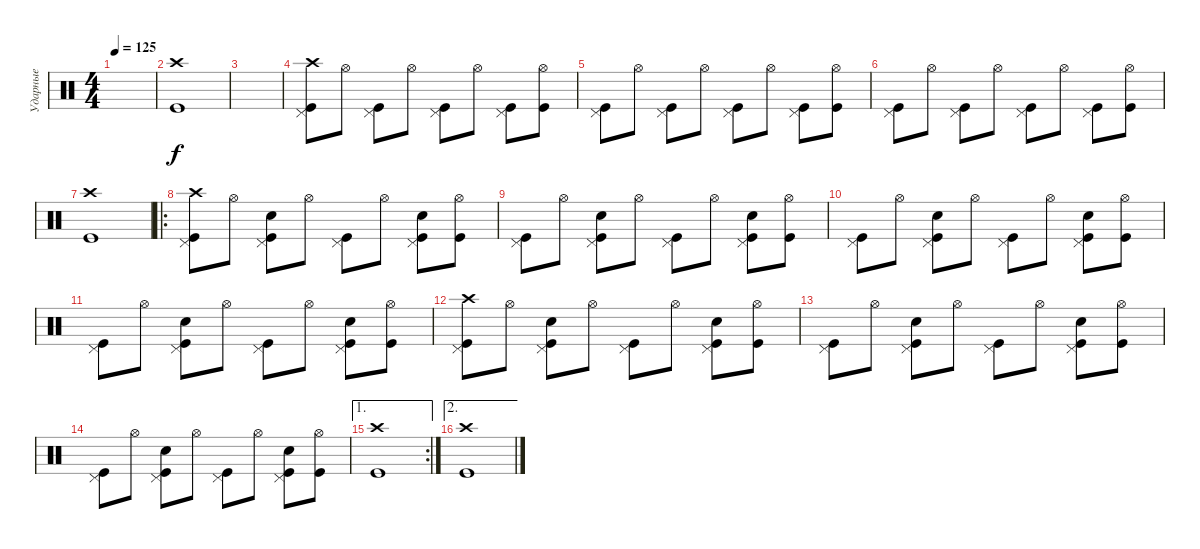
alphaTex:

\track ("Ударные" "Ударные") {instrument percussion}
\staff {score}
\articulation defaults
\ts (4 4)
\tempo 125
\clef neutral
\ks c
|
("Kick (hit)" "Crash high (hit)").1 |
|
("Kick (hit)" "Pedal Hi-Hat (hit)" "Crash high (hit)").8 "Hi-Hat (open)".8 ("Kick (hit)" "Pedal Hi-Hat (hit)").8 "Hi-Hat (open)".8 ("Kick (hit)" "Pedal Hi-Hat (hit)").8 "Hi-Hat (open)".8 ("Kick (hit)" "Pedal Hi-Hat (hit)").8 ("Kick (hit)" "Hi-Hat (open)").8 |
("Kick (hit)" "Pedal Hi-Hat (hit)").8 "Hi-Hat (open)".8 ("Kick (hit)" "Pedal Hi-Hat (hit)").8 "Hi-Hat (open)".8 ("Kick (hit)" "Pedal Hi-Hat (hit)").8 "Hi-Hat (open)".8 ("Kick (hit)" "Pedal Hi-Hat (hit)").8 ("Kick (hit)" "Hi-Hat (open)").8 |
("Kick (hit)" "Pedal Hi-Hat (hit)").8 "Hi-Hat (open)".8 ("Kick (hit)" "Pedal Hi-Hat (hit)").8 "Hi-Hat (open)".8 ("Kick (hit)" "Pedal Hi-Hat (hit)").8 "Hi-Hat (open)".8 ("Kick (hit)" "Pedal Hi-Hat (hit)").8 ("Kick (hit)" "Hi-Hat (open)").8 |
("Kick (hit)" "Crash high (hit)").1 |
\ro
("Kick (hit)" "Pedal Hi-Hat (hit)" "Crash high (hit)").8 "Hi-Hat (open)".8 ("Kick (hit)" "Pedal Hi-Hat (hit)" "Hand Clap (hit)").8 "Hi-Hat (open)".8 ("Kick (hit)" "Pedal Hi-Hat (hit)").8 "Hi-Hat (open)".8 ("Kick (hit)" "Pedal Hi-Hat (hit)" "Hand Clap (hit)").8 ("Kick (hit)" "Hi-Hat (open)").8 |
("Kick (hit)" "Pedal Hi-Hat (hit)").8 "Hi-Hat (open)".8 ("Kick (hit)" "Pedal Hi-Hat (hit)" "Hand Clap (hit)").8 "Hi-Hat (open)".8 ("Kick (hit)" "Pedal Hi-Hat (hit)").8 "Hi-Hat (open)".8 ("Kick (hit)" "Pedal Hi-Hat (hit)" "Hand Clap (hit)").8 ("Kick (hit)" "Hi-Hat (open)").8 |
("Kick (hit)" "Pedal Hi-Hat (hit)").8 "Hi-Hat (open)".8 ("Kick (hit)" "Pedal Hi-Hat (hit)" "Hand Clap (hit)").8 "Hi-Hat (open)".8 ("Kick (hit)" "Pedal Hi-Hat (hit)").8 "Hi-Hat (open)".8 ("Kick (hit)" "Pedal Hi-Hat (hit)" "Hand Clap (hit)").8 ("Kick (hit)" "Hi-Hat (open)").8 |
("Kick (hit)" "Pedal Hi-Hat (hit)").8 "Hi-Hat (open)".8 ("Kick (hit)" "Pedal Hi-Hat (hit)" "Hand Clap (hit)").8 "Hi-Hat (open)".8 ("Kick (hit)" "Pedal Hi-Hat (hit)").8 "Hi-Hat (open)".8 ("Kick (hit)" "Pedal Hi-Hat (hit)" "Hand Clap (hit)").8 ("Kick (hit)" "Hi-Hat (open)").8 |
("Kick (hit)" "Pedal Hi-Hat (hit)" "Crash high (hit)").8 "Hi-Hat (open)".8 ("Kick (hit)" "Pedal Hi-Hat (hit)" "Hand Clap (hit)").8 "Hi-Hat (open)".8 ("Kick (hit)" "Pedal Hi-Hat (hit)").8 "Hi-Hat (open)".8 ("Kick (hit)" "Pedal Hi-Hat (hit)" "Hand Clap (hit)").8 ("Kick (hit)" "Hi-Hat (open)").8 |
("Kick (hit)" "Pedal Hi-Hat (hit)").8 "Hi-Hat (open)".8 ("Kick (hit)" "Pedal Hi-Hat (hit)" "Hand Clap (hit)").8 "Hi-Hat (open)".8 ("Kick (hit)" "Pedal Hi-Hat (hit)").8 "Hi-Hat (open)".8 ("Kick (hit)" "Pedal Hi-Hat (hit)" "Hand Clap (hit)").8 ("Kick (hit)" "Hi-Hat (open)").8 |
("Kick (hit)" "Pedal Hi-Hat (hit)").8 "Hi-Hat (open)".8 ("Kick (hit)" "Pedal Hi-Hat (hit)" "Hand Clap (hit)").8 "Hi-Hat (open)".8 ("Kick (hit)" "Pedal Hi-Hat (hit)").8 "Hi-Hat (open)".8 ("Kick (hit)" "Pedal Hi-Hat (hit)" "Hand Clap (hit)").8 ("Kick (hit)" "Hi-Hat (open)").8 |
\ae 1
\rc 2
("Kick (hit)" "Crash high (hit)").1 |
\ae 2
("Kick (hit)" "Crash high (hit)").1
